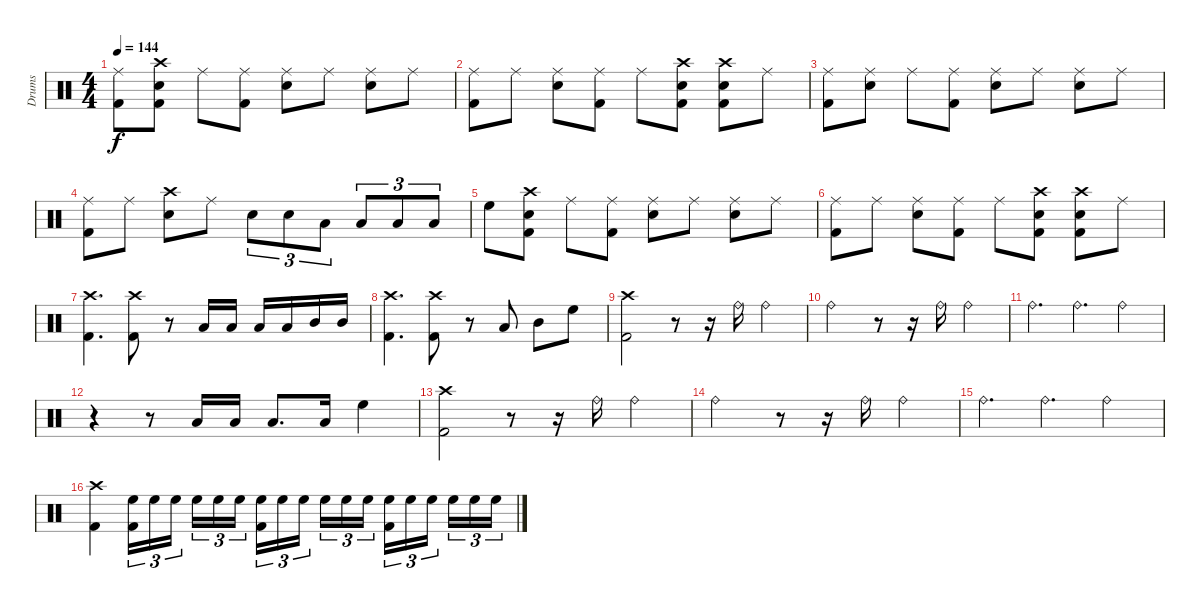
\track ("Drums" "Drums") {instrument percussion}
\staff {score}
\articulation defaults
\ts (4 4)
\tempo 144
\clef neutral
\ks c
("Ride (middle)" "Kick (hit) 2").8{dy f} ("Crash high (hit)" "Snare (hit) 2" "Kick (hit) 2").8 "Ride (middle)".8 ("Ride (middle)" "Kick (hit) 2").8 ("Ride (middle)" "Snare (hit) 2").8 "Ride (middle)".8 ("Ride (middle)" "Snare (hit) 2").8 "Ride (middle)".8 |
("Ride (middle)" "Kick (hit) 2").8 "Ride (middle)".8 ("Ride (middle)" "Snare (hit) 2").8 ("Ride (middle)" "Kick (hit) 2").8 "Ride (middle)".8 ("Crash high (hit)" "Snare (hit) 2" "Kick (hit) 2").8 ("Crash high (hit)" "Snare (hit) 2" "Kick (hit) 2").8 "Ride (middle)".8 |
("Ride (middle)" "Kick (hit) 2").8 ("Ride (middle)" "Snare (hit) 2").8 "Ride (middle)".8 ("Ride (middle)" "Kick (hit) 2").8 ("Ride (middle)" "Snare (hit) 2").8 "Ride (middle)".8 ("Ride (middle)" "Snare (hit) 2").8 "Ride (middle)".8 |
("Ride (middle)" "Kick (hit) 2").8 "Ride (middle)".8 ("Crash high (hit)" "Snare (hit) 2").8 "Ride (middle)".8 "Snare (hit) 2".8{tu (3 2)} "Snare (hit) 2".8{tu (3 2)} "Low Floor Tom (hit)".8{tu (3 2)} "Low Floor Tom (hit)".8{tu (3 2)} "Low Tom (hit)".8{tu (3 2)} "Low Tom (hit)".8{tu (3 2)} |
"High Floor Tom (hit)".8 ("Crash high (hit)" "Snare (hit) 2" "Kick (hit) 2").8 "Ride (middle)".8 ("Ride (middle)" "Kick (hit) 2").8 ("Ride (middle)" "Snare (hit) 2").8 "Ride (middle)".8 ("Ride (middle)" "Snare (hit) 2").8 "Ride (middle)".8 |
("Ride (middle)" "Kick (hit) 2").8 "Ride (middle)".8 ("Ride (middle)" "Snare (hit) 2").8 ("Ride (middle)" "Kick (hit) 2").8 "Ride (middle)".8 ("Crash high (hit)" "Snare (hit) 2" "Kick (hit) 2").8 ("Crash high (hit)" "Snare (hit) 2" "Kick (hit) 2").8 "Ride (middle)".8 |
("Crash high (hit)" "Kick (hit) 2").4{d} ("Crash high (hit)" "Kick (hit) 2").8 r.8 "Low Floor Tom (hit)".16 "Low Floor Tom (hit)".16 "Low Tom (hit)".16 "Low Tom (hit)".16 "Mid Tom (hit)".16 "Mid Tom (hit)".16 |
("Crash high (hit)" "Kick (hit) 2").4{d} ("Crash high (hit)" "Kick (hit) 2").8 r.8 "Low Tom (hit)".8 "Mid Tom (hit)".8 "High Floor Tom (hit)".8 |
("Crash high (hit)" "Kick (hit) 2").2 r.8 r.16 "Ride (bell)".16 "Ride (bell)".4 |
"Ride (bell)".2 r.8 r.16 "Ride (bell)".16 "Ride (bell)".4 |
"Ride (bell)".4{d} "Ride (bell)".4{d} "Ride (bell)".4 |
r.4 r.8 "Low Floor Tom (hit)".16 "Low Floor Tom (hit)".16 "Low Tom (hit)".8{d} "Low Tom (hit)".16 "High Floor Tom (hit)".4 |
("Crash high (hit)" "Kick (hit) 2").2 r.8 r.16 "Ride (bell)".16 "Ride (bell)".4 |
"Ride (bell)".2 r.8 r.16 "Ride (bell)".16 "Ride (bell)".4 |
"Ride (bell)".4{d} "Ride (bell)".4{d} "Ride (bell)".4 |
("Crash high (hit)" "Kick (hit) 2").4 ("High Floor Tom (hit)" "Kick (hit) 2").16{tu (3 2)} "High Floor Tom (hit)".16{tu (3 2)} "High Floor Tom (hit)".16{tu (3 2) beam splitsecondary} "High Floor Tom (hit)".16{tu (3 2)} "High Floor Tom (hit)".16{tu (3 2)} "High Floor Tom (hit)".16{tu (3 2)} ("High Floor Tom (hit)" "Kick (hit) 2").16{tu (3 2)} "High Floor Tom (hit)".16{tu (3 2)} "High Floor Tom (hit)".16{tu (3 2) beam splitsecondary} "High Floor Tom (hit)".16{tu (3 2)} "High Floor Tom (hit)".16{tu (3 2)} "High Floor Tom (hit)".16{tu (3 2)} ("High Floor Tom (hit)" "Kick (hit) 2").16{tu (3 2)} "High Floor Tom (hit)".16{tu (3 2)} "High Floor Tom (hit)".16{tu (3 2) beam splitsecondary} "High Floor Tom (hit)".16{tu (3 2)} "High Floor Tom (hit)".16{tu (3 2)} "High Floor Tom (hit)".16{tu (3 2)}
